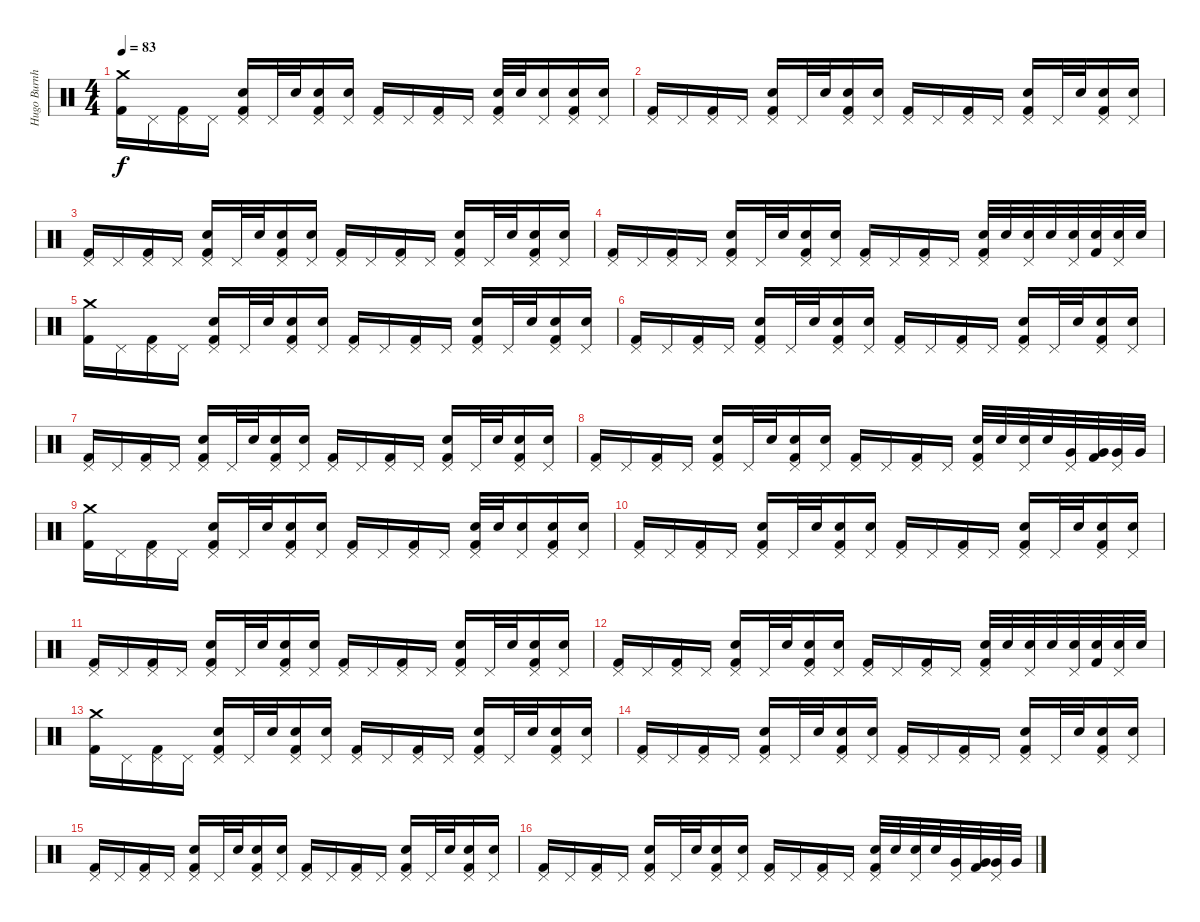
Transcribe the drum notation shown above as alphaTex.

\track ("Hugo Burnham" "Hugo Burnh") {instrument percussion}
\staff {score}
\articulation defaults
\ts (4 4)
\tempo 83
\clef neutral
\ks c
("Crash medium (hit)" "Kick (hit) 2").16{dy f} "Pedal Hi-Hat (hit)".16 ("Pedal Hi-Hat (hit)" "Kick (hit) 2").16 "Pedal Hi-Hat (hit)".16 ("Pedal Hi-Hat (hit)" "Electric Snare (hit)" "Kick (hit) 2").16 "Pedal Hi-Hat (hit)".32 "Electric Snare (hit)".32 ("Pedal Hi-Hat (hit)" "Electric Snare (hit)" "Kick (hit) 2").16 ("Pedal Hi-Hat (hit)" "Electric Snare (hit)").16 ("Pedal Hi-Hat (hit)" "Kick (hit) 2").16 "Pedal Hi-Hat (hit)".16 ("Pedal Hi-Hat (hit)" "Kick (hit) 2").16 "Pedal Hi-Hat (hit)".16 ("Pedal Hi-Hat (hit)" "Electric Snare (hit)" "Kick (hit) 2").32 "Electric Snare (hit)".32 ("Pedal Hi-Hat (hit)" "Electric Snare (hit)").16 ("Pedal Hi-Hat (hit)" "Electric Snare (hit)" "Kick (hit) 2").16 ("Pedal Hi-Hat (hit)" "Electric Snare (hit)").16 |
("Pedal Hi-Hat (hit)" "Kick (hit) 2").16 "Pedal Hi-Hat (hit)".16 ("Pedal Hi-Hat (hit)" "Kick (hit) 2").16 "Pedal Hi-Hat (hit)".16 ("Pedal Hi-Hat (hit)" "Electric Snare (hit)" "Kick (hit) 2").16 "Pedal Hi-Hat (hit)".32 "Electric Snare (hit)".32 ("Pedal Hi-Hat (hit)" "Electric Snare (hit)" "Kick (hit) 2").16 ("Pedal Hi-Hat (hit)" "Electric Snare (hit)").16 ("Pedal Hi-Hat (hit)" "Kick (hit) 2").16 "Pedal Hi-Hat (hit)".16 ("Pedal Hi-Hat (hit)" "Kick (hit) 2").16 "Pedal Hi-Hat (hit)".16 ("Pedal Hi-Hat (hit)" "Electric Snare (hit)" "Kick (hit) 2").16 "Pedal Hi-Hat (hit)".32 "Electric Snare (hit)".32 ("Pedal Hi-Hat (hit)" "Electric Snare (hit)" "Kick (hit) 2").16 ("Pedal Hi-Hat (hit)" "Electric Snare (hit)").16 |
("Pedal Hi-Hat (hit)" "Kick (hit) 2").16 "Pedal Hi-Hat (hit)".16 ("Pedal Hi-Hat (hit)" "Kick (hit) 2").16 "Pedal Hi-Hat (hit)".16 ("Pedal Hi-Hat (hit)" "Electric Snare (hit)" "Kick (hit) 2").16 "Pedal Hi-Hat (hit)".32 "Electric Snare (hit)".32 ("Pedal Hi-Hat (hit)" "Electric Snare (hit)" "Kick (hit) 2").16 ("Pedal Hi-Hat (hit)" "Electric Snare (hit)").16 ("Pedal Hi-Hat (hit)" "Kick (hit) 2").16 "Pedal Hi-Hat (hit)".16 ("Pedal Hi-Hat (hit)" "Kick (hit) 2").16 "Pedal Hi-Hat (hit)".16 ("Pedal Hi-Hat (hit)" "Electric Snare (hit)" "Kick (hit) 2").16 "Pedal Hi-Hat (hit)".32 "Electric Snare (hit)".32 ("Pedal Hi-Hat (hit)" "Electric Snare (hit)" "Kick (hit) 2").16 ("Pedal Hi-Hat (hit)" "Electric Snare (hit)").16 |
("Pedal Hi-Hat (hit)" "Kick (hit) 2").16 "Pedal Hi-Hat (hit)".16 ("Pedal Hi-Hat (hit)" "Kick (hit) 2").16 "Pedal Hi-Hat (hit)".16 ("Pedal Hi-Hat (hit)" "Electric Snare (hit)" "Kick (hit) 2").16 "Pedal Hi-Hat (hit)".32 "Electric Snare (hit)".32 ("Pedal Hi-Hat (hit)" "Electric Snare (hit)" "Kick (hit) 2").16 ("Pedal Hi-Hat (hit)" "Electric Snare (hit)").16 ("Pedal Hi-Hat (hit)" "Kick (hit) 2").16 "Pedal Hi-Hat (hit)".16 ("Pedal Hi-Hat (hit)" "Kick (hit) 2").16 "Pedal Hi-Hat (hit)".16 ("Pedal Hi-Hat (hit)" "Electric Snare (hit)" "Kick (hit) 2").32 "Electric Snare (hit)".32 ("Pedal Hi-Hat (hit)" "Electric Snare (hit)").32 "Electric Snare (hit)".32 ("Pedal Hi-Hat (hit)" "Electric Snare (hit)").32 ("Electric Snare (hit)" "Kick (hit) 2").32 ("Pedal Hi-Hat (hit)" "Electric Snare (hit)").32 "Electric Snare (hit)".32 |
("Crash medium (hit)" "Kick (hit) 2").16 "Pedal Hi-Hat (hit)".16 ("Pedal Hi-Hat (hit)" "Kick (hit) 2").16 "Pedal Hi-Hat (hit)".16 ("Pedal Hi-Hat (hit)" "Electric Snare (hit)" "Kick (hit) 2").16 "Pedal Hi-Hat (hit)".32 "Electric Snare (hit)".32 ("Pedal Hi-Hat (hit)" "Electric Snare (hit)" "Kick (hit) 2").16 ("Pedal Hi-Hat (hit)" "Electric Snare (hit)").16 ("Pedal Hi-Hat (hit)" "Kick (hit) 2").16 "Pedal Hi-Hat (hit)".16 ("Pedal Hi-Hat (hit)" "Kick (hit) 2").16 "Pedal Hi-Hat (hit)".16 ("Pedal Hi-Hat (hit)" "Electric Snare (hit)" "Kick (hit) 2").16 "Pedal Hi-Hat (hit)".32 "Electric Snare (hit)".32 ("Pedal Hi-Hat (hit)" "Electric Snare (hit)" "Kick (hit) 2").16 ("Pedal Hi-Hat (hit)" "Electric Snare (hit)").16 |
("Pedal Hi-Hat (hit)" "Kick (hit) 2").16 "Pedal Hi-Hat (hit)".16 ("Pedal Hi-Hat (hit)" "Kick (hit) 2").16 "Pedal Hi-Hat (hit)".16 ("Pedal Hi-Hat (hit)" "Electric Snare (hit)" "Kick (hit) 2").16 "Pedal Hi-Hat (hit)".32 "Electric Snare (hit)".32 ("Pedal Hi-Hat (hit)" "Electric Snare (hit)" "Kick (hit) 2").16 ("Pedal Hi-Hat (hit)" "Electric Snare (hit)").16 ("Pedal Hi-Hat (hit)" "Kick (hit) 2").16 "Pedal Hi-Hat (hit)".16 ("Pedal Hi-Hat (hit)" "Kick (hit) 2").16 "Pedal Hi-Hat (hit)".16 ("Pedal Hi-Hat (hit)" "Electric Snare (hit)" "Kick (hit) 2").16 "Pedal Hi-Hat (hit)".32 "Electric Snare (hit)".32 ("Pedal Hi-Hat (hit)" "Electric Snare (hit)" "Kick (hit) 2").16 ("Pedal Hi-Hat (hit)" "Electric Snare (hit)").16 |
("Pedal Hi-Hat (hit)" "Kick (hit) 2").16 "Pedal Hi-Hat (hit)".16 ("Pedal Hi-Hat (hit)" "Kick (hit) 2").16 "Pedal Hi-Hat (hit)".16 ("Pedal Hi-Hat (hit)" "Electric Snare (hit)" "Kick (hit) 2").16 "Pedal Hi-Hat (hit)".32 "Electric Snare (hit)".32 ("Pedal Hi-Hat (hit)" "Electric Snare (hit)" "Kick (hit) 2").16 ("Pedal Hi-Hat (hit)" "Electric Snare (hit)").16 ("Pedal Hi-Hat (hit)" "Kick (hit) 2").16 "Pedal Hi-Hat (hit)".16 ("Pedal Hi-Hat (hit)" "Kick (hit) 2").16 "Pedal Hi-Hat (hit)".16 ("Pedal Hi-Hat (hit)" "Electric Snare (hit)" "Kick (hit) 2").16 "Pedal Hi-Hat (hit)".32 "Electric Snare (hit)".32 ("Pedal Hi-Hat (hit)" "Electric Snare (hit)" "Kick (hit) 2").16 ("Pedal Hi-Hat (hit)" "Electric Snare (hit)").16 |
("Pedal Hi-Hat (hit)" "Kick (hit) 2").16 "Pedal Hi-Hat (hit)".16 ("Pedal Hi-Hat (hit)" "Kick (hit) 2").16 "Pedal Hi-Hat (hit)".16 ("Pedal Hi-Hat (hit)" "Electric Snare (hit)" "Kick (hit) 2").16 "Pedal Hi-Hat (hit)".32 "Electric Snare (hit)".32 ("Pedal Hi-Hat (hit)" "Electric Snare (hit)" "Kick (hit) 2").16 ("Pedal Hi-Hat (hit)" "Electric Snare (hit)").16 ("Pedal Hi-Hat (hit)" "Kick (hit) 2").16 "Pedal Hi-Hat (hit)".16 ("Pedal Hi-Hat (hit)" "Kick (hit) 2").16 "Pedal Hi-Hat (hit)".16 ("Pedal Hi-Hat (hit)" "Electric Snare (hit)" "Kick (hit) 2").32 "Electric Snare (hit)".32 ("Pedal Hi-Hat (hit)" "Electric Snare (hit)").32 "Electric Snare (hit)".32 ("Pedal Hi-Hat (hit)" "Very Low Tom (hit)").32 ("Very Low Tom (hit)" "Kick (hit) 2").32 ("Pedal Hi-Hat (hit)" "Very Low Tom (hit)").32 "Very Low Tom (hit)".32 |
("Crash medium (hit)" "Kick (hit) 2").16 "Pedal Hi-Hat (hit)".16 ("Pedal Hi-Hat (hit)" "Kick (hit) 2").16 "Pedal Hi-Hat (hit)".16 ("Pedal Hi-Hat (hit)" "Electric Snare (hit)" "Kick (hit) 2").16 "Pedal Hi-Hat (hit)".32 "Electric Snare (hit)".32 ("Pedal Hi-Hat (hit)" "Electric Snare (hit)" "Kick (hit) 2").16 ("Pedal Hi-Hat (hit)" "Electric Snare (hit)").16 ("Pedal Hi-Hat (hit)" "Kick (hit) 2").16 "Pedal Hi-Hat (hit)".16 ("Pedal Hi-Hat (hit)" "Kick (hit) 2").16 "Pedal Hi-Hat (hit)".16 ("Pedal Hi-Hat (hit)" "Electric Snare (hit)" "Kick (hit) 2").32 "Electric Snare (hit)".32 ("Pedal Hi-Hat (hit)" "Electric Snare (hit)").16 ("Pedal Hi-Hat (hit)" "Electric Snare (hit)" "Kick (hit) 2").16 ("Pedal Hi-Hat (hit)" "Electric Snare (hit)").16 |
("Pedal Hi-Hat (hit)" "Kick (hit) 2").16 "Pedal Hi-Hat (hit)".16 ("Pedal Hi-Hat (hit)" "Kick (hit) 2").16 "Pedal Hi-Hat (hit)".16 ("Pedal Hi-Hat (hit)" "Electric Snare (hit)" "Kick (hit) 2").16 "Pedal Hi-Hat (hit)".32 "Electric Snare (hit)".32 ("Pedal Hi-Hat (hit)" "Electric Snare (hit)" "Kick (hit) 2").16 ("Pedal Hi-Hat (hit)" "Electric Snare (hit)").16 ("Pedal Hi-Hat (hit)" "Kick (hit) 2").16 "Pedal Hi-Hat (hit)".16 ("Pedal Hi-Hat (hit)" "Kick (hit) 2").16 "Pedal Hi-Hat (hit)".16 ("Pedal Hi-Hat (hit)" "Electric Snare (hit)" "Kick (hit) 2").16 "Pedal Hi-Hat (hit)".32 "Electric Snare (hit)".32 ("Pedal Hi-Hat (hit)" "Electric Snare (hit)" "Kick (hit) 2").16 ("Pedal Hi-Hat (hit)" "Electric Snare (hit)").16 |
("Pedal Hi-Hat (hit)" "Kick (hit) 2").16 "Pedal Hi-Hat (hit)".16 ("Pedal Hi-Hat (hit)" "Kick (hit) 2").16 "Pedal Hi-Hat (hit)".16 ("Pedal Hi-Hat (hit)" "Electric Snare (hit)" "Kick (hit) 2").16 "Pedal Hi-Hat (hit)".32 "Electric Snare (hit)".32 ("Pedal Hi-Hat (hit)" "Electric Snare (hit)" "Kick (hit) 2").16 ("Pedal Hi-Hat (hit)" "Electric Snare (hit)").16 ("Pedal Hi-Hat (hit)" "Kick (hit) 2").16 "Pedal Hi-Hat (hit)".16 ("Pedal Hi-Hat (hit)" "Kick (hit) 2").16 "Pedal Hi-Hat (hit)".16 ("Pedal Hi-Hat (hit)" "Electric Snare (hit)" "Kick (hit) 2").16 "Pedal Hi-Hat (hit)".32 "Electric Snare (hit)".32 ("Pedal Hi-Hat (hit)" "Electric Snare (hit)" "Kick (hit) 2").16 ("Pedal Hi-Hat (hit)" "Electric Snare (hit)").16 |
("Pedal Hi-Hat (hit)" "Kick (hit) 2").16 "Pedal Hi-Hat (hit)".16 ("Pedal Hi-Hat (hit)" "Kick (hit) 2").16 "Pedal Hi-Hat (hit)".16 ("Pedal Hi-Hat (hit)" "Electric Snare (hit)" "Kick (hit) 2").16 "Pedal Hi-Hat (hit)".32 "Electric Snare (hit)".32 ("Pedal Hi-Hat (hit)" "Electric Snare (hit)" "Kick (hit) 2").16 ("Pedal Hi-Hat (hit)" "Electric Snare (hit)").16 ("Pedal Hi-Hat (hit)" "Kick (hit) 2").16 "Pedal Hi-Hat (hit)".16 ("Pedal Hi-Hat (hit)" "Kick (hit) 2").16 "Pedal Hi-Hat (hit)".16 ("Pedal Hi-Hat (hit)" "Electric Snare (hit)" "Kick (hit) 2").32 "Electric Snare (hit)".32 ("Pedal Hi-Hat (hit)" "Electric Snare (hit)").32 "Electric Snare (hit)".32 ("Pedal Hi-Hat (hit)" "Electric Snare (hit)").32 ("Electric Snare (hit)" "Kick (hit) 2").32 ("Pedal Hi-Hat (hit)" "Electric Snare (hit)").32 "Electric Snare (hit)".32 |
("Crash medium (hit)" "Kick (hit) 2").16 "Pedal Hi-Hat (hit)".16 ("Pedal Hi-Hat (hit)" "Kick (hit) 2").16 "Pedal Hi-Hat (hit)".16 ("Pedal Hi-Hat (hit)" "Electric Snare (hit)" "Kick (hit) 2").16 "Pedal Hi-Hat (hit)".32 "Electric Snare (hit)".32 ("Pedal Hi-Hat (hit)" "Electric Snare (hit)" "Kick (hit) 2").16 ("Pedal Hi-Hat (hit)" "Electric Snare (hit)").16 ("Pedal Hi-Hat (hit)" "Kick (hit) 2").16 "Pedal Hi-Hat (hit)".16 ("Pedal Hi-Hat (hit)" "Kick (hit) 2").16 "Pedal Hi-Hat (hit)".16 ("Pedal Hi-Hat (hit)" "Electric Snare (hit)" "Kick (hit) 2").16 "Pedal Hi-Hat (hit)".32 "Electric Snare (hit)".32 ("Pedal Hi-Hat (hit)" "Electric Snare (hit)" "Kick (hit) 2").16 ("Pedal Hi-Hat (hit)" "Electric Snare (hit)").16 |
("Pedal Hi-Hat (hit)" "Kick (hit) 2").16 "Pedal Hi-Hat (hit)".16 ("Pedal Hi-Hat (hit)" "Kick (hit) 2").16 "Pedal Hi-Hat (hit)".16 ("Pedal Hi-Hat (hit)" "Electric Snare (hit)" "Kick (hit) 2").16 "Pedal Hi-Hat (hit)".32 "Electric Snare (hit)".32 ("Pedal Hi-Hat (hit)" "Electric Snare (hit)" "Kick (hit) 2").16 ("Pedal Hi-Hat (hit)" "Electric Snare (hit)").16 ("Pedal Hi-Hat (hit)" "Kick (hit) 2").16 "Pedal Hi-Hat (hit)".16 ("Pedal Hi-Hat (hit)" "Kick (hit) 2").16 "Pedal Hi-Hat (hit)".16 ("Pedal Hi-Hat (hit)" "Electric Snare (hit)" "Kick (hit) 2").16 "Pedal Hi-Hat (hit)".32 "Electric Snare (hit)".32 ("Pedal Hi-Hat (hit)" "Electric Snare (hit)" "Kick (hit) 2").16 ("Pedal Hi-Hat (hit)" "Electric Snare (hit)").16 |
("Pedal Hi-Hat (hit)" "Kick (hit) 2").16 "Pedal Hi-Hat (hit)".16 ("Pedal Hi-Hat (hit)" "Kick (hit) 2").16 "Pedal Hi-Hat (hit)".16 ("Pedal Hi-Hat (hit)" "Electric Snare (hit)" "Kick (hit) 2").16 "Pedal Hi-Hat (hit)".32 "Electric Snare (hit)".32 ("Pedal Hi-Hat (hit)" "Electric Snare (hit)" "Kick (hit) 2").16 ("Pedal Hi-Hat (hit)" "Electric Snare (hit)").16 ("Pedal Hi-Hat (hit)" "Kick (hit) 2").16 "Pedal Hi-Hat (hit)".16 ("Pedal Hi-Hat (hit)" "Kick (hit) 2").16 "Pedal Hi-Hat (hit)".16 ("Pedal Hi-Hat (hit)" "Electric Snare (hit)" "Kick (hit) 2").16 "Pedal Hi-Hat (hit)".32 "Electric Snare (hit)".32 ("Pedal Hi-Hat (hit)" "Electric Snare (hit)" "Kick (hit) 2").16 ("Pedal Hi-Hat (hit)" "Electric Snare (hit)").16 |
("Pedal Hi-Hat (hit)" "Kick (hit) 2").16 "Pedal Hi-Hat (hit)".16 ("Pedal Hi-Hat (hit)" "Kick (hit) 2").16 "Pedal Hi-Hat (hit)".16 ("Pedal Hi-Hat (hit)" "Electric Snare (hit)" "Kick (hit) 2").16 "Pedal Hi-Hat (hit)".32 "Electric Snare (hit)".32 ("Pedal Hi-Hat (hit)" "Electric Snare (hit)" "Kick (hit) 2").16 ("Pedal Hi-Hat (hit)" "Electric Snare (hit)").16 ("Pedal Hi-Hat (hit)" "Kick (hit) 2").16 "Pedal Hi-Hat (hit)".16 ("Pedal Hi-Hat (hit)" "Kick (hit) 2").16 "Pedal Hi-Hat (hit)".16 ("Pedal Hi-Hat (hit)" "Electric Snare (hit)" "Kick (hit) 2").32 "Electric Snare (hit)".32 ("Pedal Hi-Hat (hit)" "Electric Snare (hit)").32 "Electric Snare (hit)".32 ("Pedal Hi-Hat (hit)" "Very Low Tom (hit)").32 ("Very Low Tom (hit)" "Kick (hit) 2").32 ("Pedal Hi-Hat (hit)" "Very Low Tom (hit)").32 "Very Low Tom (hit)".32
